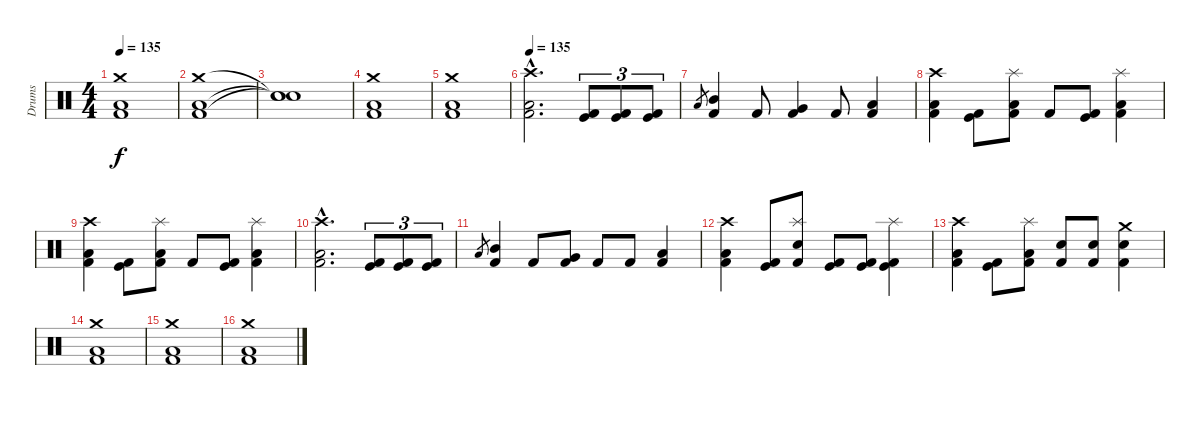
\track ("Drums" "Drums") {instrument percussion}
\staff {score}
\articulation defaults
\ts (4 4)
\tempo 135
\clef neutral
\ks c
("Crash medium (hit)" "Low Floor Tom (hit)" "Kick (hit) 2").1{dy f} |
("Crash medium (hit)" "Low Floor Tom (hit)" "Kick (hit) 2").1 |
("Snare (hit)"{t} "Snare (hit)"{t} "Snare (hit)"{t}).1 |
("Crash medium (hit)" "Low Floor Tom (hit)" "Kick (hit) 2").1 |
("Crash medium (hit)" "Low Floor Tom (hit)" "Kick (hit) 2").1 |
\tempo 135
("Crash high (hit)"{hac} "Low Floor Tom (hit)"{hac} "Kick (hit) 2"{hac}).2{d volume 16} ("Kick (hit)" "Kick (hit) 2").8{tu (3 2)} ("Kick (hit)" "Kick (hit) 2").8{tu (3 2)} ("Kick (hit)" "Kick (hit) 2").8{tu (3 2)} |
"Low Tom (hit)".8{gr} ("Mid Tom (hit)" "Kick (hit) 2").4 "Kick (hit) 2".8 ("Very Low Tom (hit)" "Kick (hit) 2").4 "Kick (hit) 2".8 ("Low Floor Tom (hit)" "Kick (hit) 2").4 |
("Crash high (hit)" "Low Floor Tom (hit)" "Kick (hit) 2").4 ("Kick (hit)" "Kick (hit) 2").8 ("Splash (hit)" "Low Floor Tom (hit)" "Kick (hit) 2").8 "Kick (hit) 2".8 ("Kick (hit)" "Kick (hit) 2").8 ("Splash (hit)" "Low Floor Tom (hit)" "Kick (hit) 2").4 |
("Crash high (hit)" "Low Floor Tom (hit)" "Kick (hit) 2").4 ("Kick (hit)" "Kick (hit) 2").8 ("Splash (hit)" "Low Floor Tom (hit)" "Kick (hit) 2").8 "Kick (hit) 2".8 ("Kick (hit)" "Kick (hit) 2").8 ("Splash (hit)" "Low Floor Tom (hit)" "Kick (hit) 2").4 |
("Crash high (hit)"{hac} "Low Floor Tom (hit)"{hac} "Kick (hit) 2"{hac}).2{d volume 16} ("Kick (hit)" "Kick (hit) 2").8{tu (3 2)} ("Kick (hit)" "Kick (hit) 2").8{tu (3 2)} ("Kick (hit)" "Kick (hit) 2").8{tu (3 2)} |
"Low Tom (hit)".8{gr} ("Mid Tom (hit)" "Kick (hit) 2").4 "Kick (hit) 2".8 ("Very Low Tom (hit)" "Kick (hit) 2").8 "Kick (hit) 2".8 "Kick (hit) 2".8 ("Low Floor Tom (hit)" "Kick (hit) 2").4 |
("Crash high (hit)" "Low Floor Tom (hit)" "Kick (hit) 2").4 ("Kick (hit)" "Kick (hit) 2").8 ("Splash (hit)" "Electric Snare (hit)" "Kick (hit) 2").8 ("Kick (hit)" "Kick (hit) 2").8 ("Kick (hit)" "Kick (hit) 2").8 ("Splash (hit)" "Kick (hit)" "Kick (hit) 2").4 |
("Crash high (hit)" "Low Floor Tom (hit)" "Kick (hit) 2").4 ("Kick (hit)" "Kick (hit) 2").8 ("Splash (hit)" "Low Floor Tom (hit)" "Kick (hit) 2").8 ("Snare (hit) 2" "Kick (hit) 2").8 ("Snare (hit) 2" "Kick (hit) 2").8 ("Crash medium (hit)" "Snare (hit) 2" "Kick (hit) 2").4 |
("Crash medium (hit)" "Low Floor Tom (hit)" "Kick (hit) 2").1 |
("Crash medium (hit)" "Low Floor Tom (hit)" "Kick (hit) 2").1 |
("Crash medium (hit)" "Low Floor Tom (hit)" "Kick (hit) 2").1
